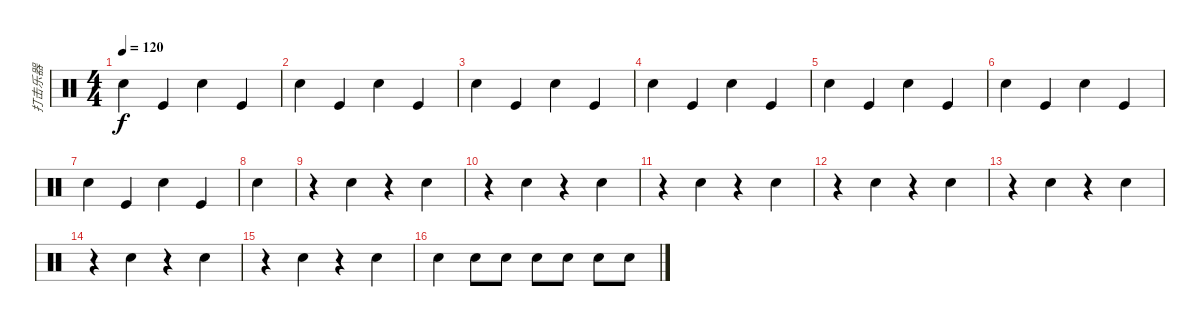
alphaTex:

\track ("打击乐器" "打击乐器") {instrument percussion}
\staff {score}
\articulation defaults
\ts (4 4)
\tempo 120
\clef neutral
\ks c "Electric Snare (hit)".4{dy f} "Kick (hit)".4 "Electric Snare (hit)".4 "Kick (hit)".4
|
"Electric Snare (hit)".4 "Kick (hit)".4 "Electric Snare (hit)".4 "Kick (hit)".4 |
"Electric Snare (hit)".4 "Kick (hit)".4 "Electric Snare (hit)".4 "Kick (hit)".4 |
"Electric Snare (hit)".4 "Kick (hit)".4 "Electric Snare (hit)".4 "Kick (hit)".4 |
"Electric Snare (hit)".4 "Kick (hit)".4 "Electric Snare (hit)".4 "Kick (hit)".4 |
"Electric Snare (hit)".4 "Kick (hit)".4 "Electric Snare (hit)".4 "Kick (hit)".4 |
"Electric Snare (hit)".4 "Kick (hit)".4 "Electric Snare (hit)".4 "Kick (hit)".4 |
"Electric Snare (hit)".4 |
r.4 "Electric Snare (hit)".4 r.4 "Electric Snare (hit)".4 |
r.4 "Electric Snare (hit)".4 r.4 "Electric Snare (hit)".4 |
r.4 "Electric Snare (hit)".4 r.4 "Electric Snare (hit)".4 |
r.4 "Electric Snare (hit)".4 r.4 "Electric Snare (hit)".4 |
r.4 "Electric Snare (hit)".4 r.4 "Electric Snare (hit)".4 |
r.4 "Electric Snare (hit)".4 r.4 "Electric Snare (hit)".4 |
r.4 "Electric Snare (hit)".4 r.4 "Electric Snare (hit)".4 |
"Electric Snare (hit)".4 "Electric Snare (hit)".8 "Electric Snare (hit)".8 "Electric Snare (hit)".8 "Electric Snare (hit)".8 "Electric Snare (hit)".8 "Electric Snare (hit)".8
